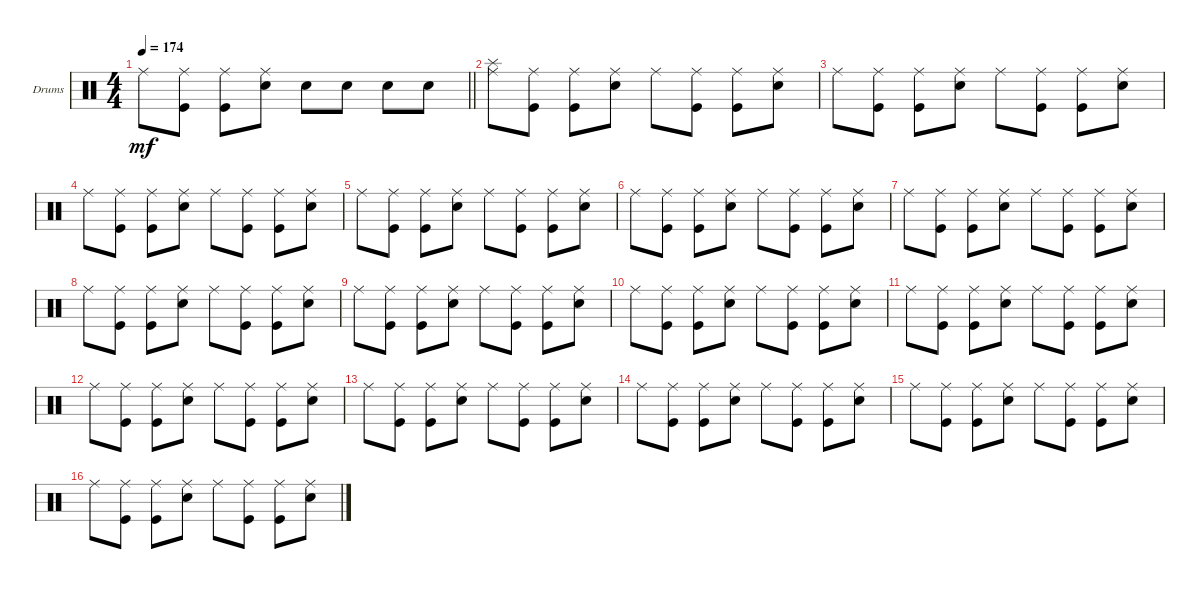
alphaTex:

\bracketExtendMode groupsimilarinstruments
\firstSystemTrackNameOrientation horizontal
\otherSystemsTrackNameOrientation horizontal
\track ("Drumkit" "Drums") {instrument percussion}
\staff {score}
\articulation defaults
\ts (4 4)
\tempo 174
\clef neutral
\scale
0.333333
\barLineRight lightlight
\ks c "Ride (middle)".8{dy mf}
("Kick (hit)" "Ride (middle)").8 ("Kick (hit)" "Ride (middle)").8 ("Snare (hit) 2" "Ride (middle)").8 "Snare (hit) 2".8 "Snare (hit) 2".8 "Snare (hit) 2".8 "Snare (hit) 2".8 |
\scale
0.333333 ("Ride (middle)" "Splash (hit)").8 ("Kick (hit)" "Ride (middle)").8 ("Kick (hit)" "Ride (middle)").8 ("Snare (hit) 2" "Ride (middle)").8 "Ride (middle)".8 ("Ride (middle)" "Kick (hit)").8 ("Kick (hit)" "Ride (middle)").8 ("Snare (hit) 2" "Ride (middle)").8 |
\scale
0.333333 "Ride (middle)".8 ("Kick (hit)" "Ride (middle)").8 ("Kick (hit)" "Ride (middle)").8 ("Snare (hit) 2" "Ride (middle)").8 "Ride (middle)".8 ("Ride (middle)" "Kick (hit)").8 ("Kick (hit)" "Ride (middle)").8 ("Snare (hit) 2" "Ride (middle)").8 |
\scale
0.333333 "Ride (middle)".8 ("Kick (hit)" "Ride (middle)").8 ("Kick (hit)" "Ride (middle)").8 ("Snare (hit) 2" "Ride (middle)").8 "Ride (middle)".8 ("Ride (middle)" "Kick (hit)").8 ("Kick (hit)" "Ride (middle)").8 ("Snare (hit) 2" "Ride (middle)").8 |
\scale
0.333333 "Ride (middle)".8 ("Kick (hit)" "Ride (middle)").8 ("Kick (hit)" "Ride (middle)").8 ("Snare (hit) 2" "Ride (middle)").8 "Ride (middle)".8 ("Ride (middle)" "Kick (hit)").8 ("Kick (hit)" "Ride (middle)").8 ("Snare (hit) 2" "Ride (middle)").8 |
\scale
0.333333 "Ride (middle)".8 ("Kick (hit)" "Ride (middle)").8 ("Kick (hit)" "Ride (middle)").8 ("Snare (hit) 2" "Ride (middle)").8 "Ride (middle)".8 ("Ride (middle)" "Kick (hit)").8 ("Kick (hit)" "Ride (middle)").8 ("Snare (hit) 2" "Ride (middle)").8 |
\scale
0.333333 "Ride (middle)".8 ("Kick (hit)" "Ride (middle)").8 ("Kick (hit)" "Ride (middle)").8 ("Snare (hit) 2" "Ride (middle)").8 "Ride (middle)".8 ("Ride (middle)" "Kick (hit)").8 ("Kick (hit)" "Ride (middle)").8 ("Snare (hit) 2" "Ride (middle)").8 |
\scale
0.333333 "Ride (middle)".8 ("Kick (hit)" "Ride (middle)").8 ("Kick (hit)" "Ride (middle)").8 ("Snare (hit) 2" "Ride (middle)").8 "Ride (middle)".8 ("Ride (middle)" "Kick (hit)").8 ("Kick (hit)" "Ride (middle)").8 ("Snare (hit) 2" "Ride (middle)").8 |
\scale
0.333333 "Ride (middle)".8 ("Kick (hit)" "Ride (middle)").8 ("Kick (hit)" "Ride (middle)").8 ("Snare (hit) 2" "Ride (middle)").8 "Ride (middle)".8 ("Ride (middle)" "Kick (hit)").8 ("Kick (hit)" "Ride (middle)").8 ("Snare (hit) 2" "Ride (middle)").8 |
\scale
0.333333 "Ride (middle)".8 ("Kick (hit)" "Ride (middle)").8 ("Kick (hit)" "Ride (middle)").8 ("Snare (hit) 2" "Ride (middle)").8 "Ride (middle)".8 ("Ride (middle)" "Kick (hit)").8 ("Kick (hit)" "Ride (middle)").8 ("Snare (hit) 2" "Ride (middle)").8 |
\scale
0.333333 "Ride (middle)".8 ("Kick (hit)" "Ride (middle)").8 ("Kick (hit)" "Ride (middle)").8 ("Snare (hit) 2" "Ride (middle)").8 "Ride (middle)".8 ("Ride (middle)" "Kick (hit)").8 ("Kick (hit)" "Ride (middle)").8 ("Snare (hit) 2" "Ride (middle)").8 |
\scale
0.333333 "Ride (middle)".8 ("Kick (hit)" "Ride (middle)").8 ("Kick (hit)" "Ride (middle)").8 ("Snare (hit) 2" "Ride (middle)").8 "Ride (middle)".8 ("Ride (middle)" "Kick (hit)").8 ("Kick (hit)" "Ride (middle)").8 ("Snare (hit) 2" "Ride (middle)").8 |
\scale
0.333333 "Ride (middle)".8 ("Kick (hit)" "Ride (middle)").8 ("Kick (hit)" "Ride (middle)").8 ("Snare (hit) 2" "Ride (middle)").8 "Ride (middle)".8 ("Ride (middle)" "Kick (hit)").8 ("Kick (hit)" "Ride (middle)").8 ("Snare (hit) 2" "Ride (middle)").8 |
\scale
0.333333 "Ride (middle)".8 ("Kick (hit)" "Ride (middle)").8 ("Kick (hit)" "Ride (middle)").8 ("Snare (hit) 2" "Ride (middle)").8 "Ride (middle)".8 ("Ride (middle)" "Kick (hit)").8 ("Kick (hit)" "Ride (middle)").8 ("Snare (hit) 2" "Ride (middle)").8 |
\scale
0.333333 "Ride (middle)".8 ("Kick (hit)" "Ride (middle)").8 ("Kick (hit)" "Ride (middle)").8 ("Snare (hit) 2" "Ride (middle)").8 "Ride (middle)".8 ("Ride (middle)" "Kick (hit)").8 ("Kick (hit)" "Ride (middle)").8 ("Snare (hit) 2" "Ride (middle)").8 |
\scale
0.333333 "Ride (middle)".8 ("Kick (hit)" "Ride (middle)").8 ("Kick (hit)" "Ride (middle)").8 ("Snare (hit) 2" "Ride (middle)").8 "Ride (middle)".8 ("Ride (middle)" "Kick (hit)").8 ("Kick (hit)" "Ride (middle)").8 ("Snare (hit) 2" "Ride (middle)").8
